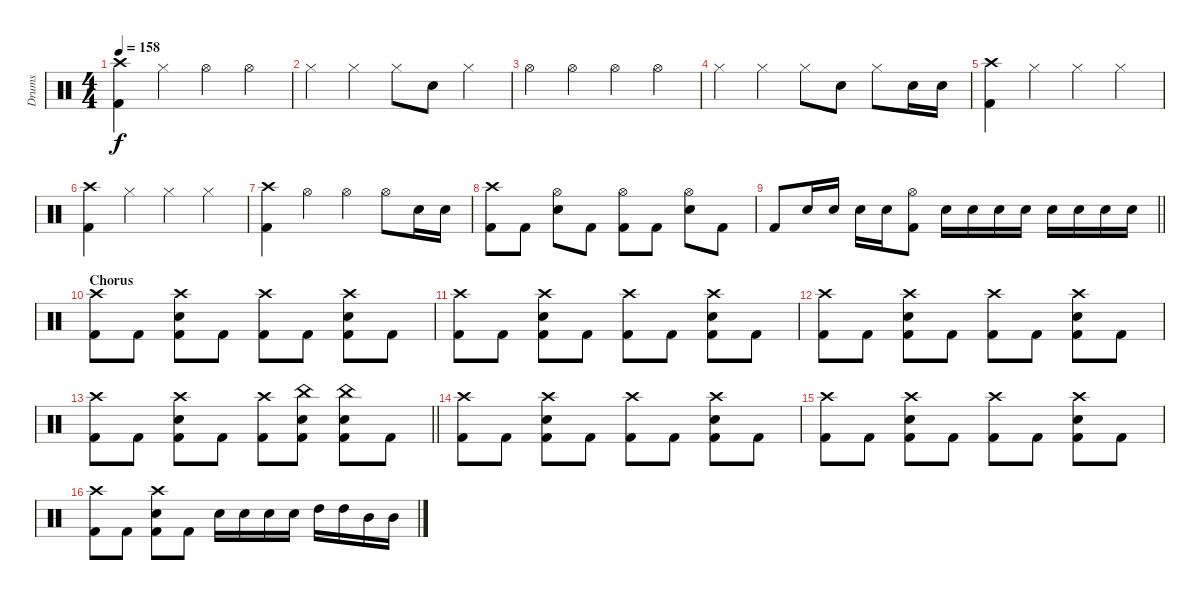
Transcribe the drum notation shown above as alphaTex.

\track ("Drums" "Drums") {instrument percussion}
\staff {score}
\articulation defaults
\ts (4 4)
\tempo 158
\clef neutral
\ks c
("Crash high (hit)" "Kick (hit) 2").4{dy f} "Hi-Hat (closed)".4 "Hi-Hat (open)".4 "Hi-Hat (open)".4 |
"Hi-Hat (closed)".4 "Hi-Hat (closed)".4 "Hi-Hat (closed)".8 "Snare (hit) 2".8 "Hi-Hat (closed)".4 |
"Hi-Hat (open)".4 "Hi-Hat (open)".4 "Hi-Hat (open)".4 "Hi-Hat (open)".4 |
"Hi-Hat (closed)".4 "Hi-Hat (closed)".4 "Hi-Hat (closed)".8 "Snare (hit) 2".8 "Hi-Hat (closed)".8 "Snare (hit) 2".16 "Snare (hit) 2".16 |
("Crash high (hit)" "Kick (hit) 2").4 "Hi-Hat (closed)".4 "Hi-Hat (closed)".4 "Hi-Hat (closed)".4 |
("Crash high (hit)" "Kick (hit) 2").4 "Hi-Hat (closed)".4 "Hi-Hat (closed)".4 "Hi-Hat (closed)".4 |
("Crash high (hit)" "Kick (hit) 2").4 "Hi-Hat (open)".4 "Hi-Hat (open)".4 "Hi-Hat (open)".8 "Snare (hit) 2".16 "Snare (hit) 2".16 |
("Crash high (hit)" "Kick (hit) 2").8 "Kick (hit) 2".8 ("Hi-Hat (open)" "Snare (hit) 2").8 "Kick (hit) 2".8 ("Hi-Hat (open)" "Kick (hit) 2").8 "Kick (hit) 2".8 ("Hi-Hat (open)" "Snare (hit) 2").8 "Kick (hit) 2".8 |
\barLineRight lightlight "Kick (hit) 2".8 "Snare (hit) 2".16 "Snare (hit) 2".16 "Snare (hit) 2".16 "Snare (hit) 2".16
("Hi-Hat (open)" "Kick (hit) 2").8 "Snare (hit) 2".16 "Snare (hit) 2".16 "Snare (hit) 2".16 "Snare (hit) 2".16 "Snare (hit) 2".16 "Snare (hit) 2".16 "Snare (hit) 2".16 "Snare (hit) 2".16 |
\section ("" "Chorus")
("Crash high (hit)" "Kick (hit) 2").8 "Kick (hit) 2".8 ("Crash high (hit)" "Snare (hit) 2" "Kick (hit) 2").8 "Kick (hit) 2".8 ("Crash high (hit)" "Kick (hit) 2").8 "Kick (hit) 2".8 ("Crash high (hit)" "Snare (hit) 2" "Kick (hit) 2").8 "Kick (hit) 2".8 |
("Crash high (hit)" "Kick (hit) 2").8 "Kick (hit) 2".8 ("Crash high (hit)" "Snare (hit) 2" "Kick (hit) 2").8 "Kick (hit) 2".8 ("Crash high (hit)" "Kick (hit) 2").8 "Kick (hit) 2".8 ("Crash high (hit)" "Snare (hit) 2" "Kick (hit) 2").8 "Kick (hit) 2".8 |
("Crash high (hit)" "Kick (hit) 2").8 "Kick (hit) 2".8 ("Crash high (hit)" "Snare (hit) 2" "Kick (hit) 2").8 "Kick (hit) 2".8 ("Crash high (hit)" "Kick (hit) 2").8 "Kick (hit) 2".8 ("Crash high (hit)" "Snare (hit) 2" "Kick (hit) 2").8 "Kick (hit) 2".8 |
\barLineRight lightlight
("Crash high (hit)" "Kick (hit) 2").8 "Kick (hit) 2".8 ("Crash high (hit)" "Snare (hit) 2" "Kick (hit) 2").8 "Kick (hit) 2".8 ("Crash high (hit)" "Kick (hit) 2").8 ("China (hit)" "Snare (hit) 2" "Kick (hit) 2").8 ("China (hit)" "Snare (hit) 2" "Kick (hit) 2").8 "Kick (hit) 2".8 |
("Crash high (hit)" "Kick (hit) 2").8 "Kick (hit) 2".8 ("Crash high (hit)" "Snare (hit) 2" "Kick (hit) 2").8 "Kick (hit) 2".8 ("Crash high (hit)" "Kick (hit) 2").8 "Kick (hit) 2".8 ("Crash high (hit)" "Snare (hit) 2" "Kick (hit) 2").8 "Kick (hit) 2".8 |
("Crash high (hit)" "Kick (hit) 2").8 "Kick (hit) 2".8 ("Crash high (hit)" "Snare (hit) 2" "Kick (hit) 2").8 "Kick (hit) 2".8 ("Crash high (hit)" "Kick (hit) 2").8 "Kick (hit) 2".8 ("Crash high (hit)" "Snare (hit) 2" "Kick (hit) 2").8 "Kick (hit) 2".8 |
("Crash high (hit)" "Kick (hit) 2").8 "Kick (hit) 2".8 ("Crash high (hit)" "Snare (hit) 2" "Kick (hit) 2").8 "Kick (hit) 2".8 "Snare (hit) 2".16 "Snare (hit) 2".16 "Snare (hit) 2".16 "Snare (hit) 2".16 "High Tom (hit)".16 "High Tom (hit)".16 "Mid Tom (hit)".16 "Mid Tom (hit)".16
